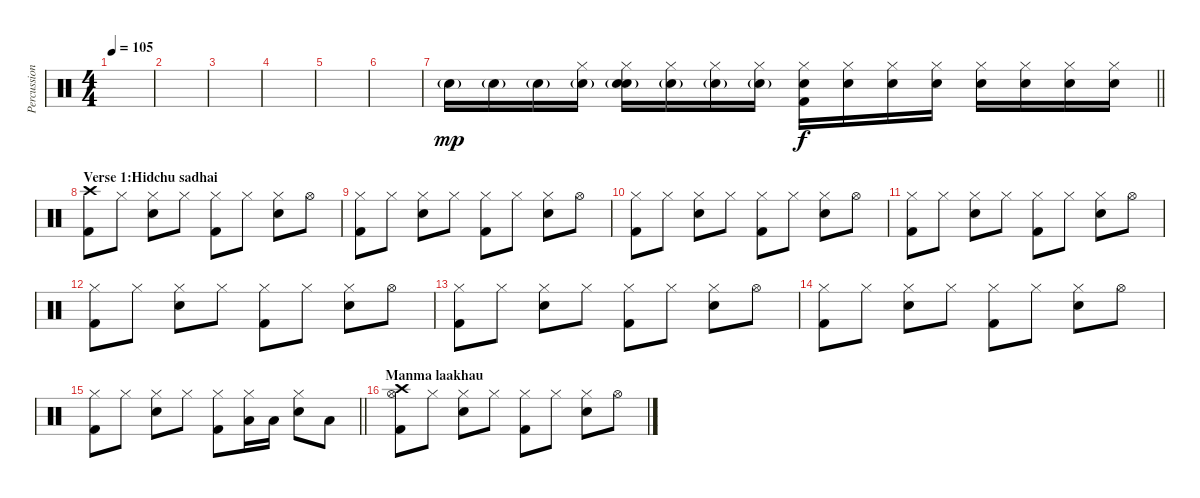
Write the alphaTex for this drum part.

\track ("Percussion" "Percussion") {instrument percussion}
\staff {score}
\articulation defaults
\ts (4 4)
\tempo 105
\clef neutral
\ks c
|
|
|
|
|
|
\barLineRight lightlight "Snare (hit) 2"{g}.16{dy mp} "Snare (hit) 2"{g}.16 "Snare (hit) 2"{g}.16
("Snare (hit) 2"{g} "Hi-Hat (closed)").16 ("Snare (hit) 2"{g} "Hi-Hat (closed)" "Snare (hit) 2").16 ("Snare (hit) 2"{g} "Hi-Hat (closed)").16 ("Snare (hit) 2"{g} "Hi-Hat (closed)").16 ("Snare (hit) 2"{g} "Hi-Hat (closed)").16 ("Snare (hit) 2" "Hi-Hat (closed)" "Kick (hit) 2").16{dy f} ("Snare (hit) 2" "Hi-Hat (closed)").16 ("Snare (hit) 2" "Hi-Hat (closed)").16 ("Snare (hit) 2" "Hi-Hat (closed)").16 ("Snare (hit) 2" "Hi-Hat (closed)").16 ("Snare (hit) 2" "Hi-Hat (closed)").16 ("Snare (hit) 2" "Hi-Hat (closed)").16 ("Snare (hit) 2" "Hi-Hat (closed)").16 |
\section ("" "Verse 1:Hidchu sadhai")
("Kick (hit) 2" "Crash high (hit)").8 "Hi-Hat (closed)".8 ("Snare (hit) 2" "Hi-Hat (closed)").8 "Hi-Hat (closed)".8 ("Kick (hit) 2" "Hi-Hat (closed)").8 "Hi-Hat (closed)".8 ("Snare (hit) 2" "Hi-Hat (closed)").8 "Hi-Hat (open)".8 |
("Kick (hit) 2" "Hi-Hat (closed)").8 "Hi-Hat (closed)".8 ("Snare (hit) 2" "Hi-Hat (closed)").8 "Hi-Hat (closed)".8 ("Kick (hit) 2" "Hi-Hat (closed)").8 "Hi-Hat (closed)".8 ("Snare (hit) 2" "Hi-Hat (closed)").8 "Hi-Hat (open)".8 |
("Kick (hit) 2" "Hi-Hat (closed)").8 "Hi-Hat (closed)".8 ("Snare (hit) 2" "Hi-Hat (closed)").8 "Hi-Hat (closed)".8 ("Kick (hit) 2" "Hi-Hat (closed)").8 "Hi-Hat (closed)".8 ("Snare (hit) 2" "Hi-Hat (closed)").8 "Hi-Hat (open)".8 |
("Kick (hit) 2" "Hi-Hat (closed)").8 "Hi-Hat (closed)".8 ("Snare (hit) 2" "Hi-Hat (closed)").8 "Hi-Hat (closed)".8 ("Kick (hit) 2" "Hi-Hat (closed)").8 "Hi-Hat (closed)".8 ("Snare (hit) 2" "Hi-Hat (closed)").8 "Hi-Hat (open)".8 |
("Kick (hit) 2" "Hi-Hat (closed)").8 "Hi-Hat (closed)".8 ("Snare (hit) 2" "Hi-Hat (closed)").8 "Hi-Hat (closed)".8 ("Kick (hit) 2" "Hi-Hat (closed)").8 "Hi-Hat (closed)".8 ("Snare (hit) 2" "Hi-Hat (closed)").8 "Hi-Hat (open)".8 |
("Kick (hit) 2" "Hi-Hat (closed)").8 "Hi-Hat (closed)".8 ("Snare (hit) 2" "Hi-Hat (closed)").8 "Hi-Hat (closed)".8 ("Kick (hit) 2" "Hi-Hat (closed)").8 "Hi-Hat (closed)".8 ("Snare (hit) 2" "Hi-Hat (closed)").8 "Hi-Hat (open)".8 |
("Kick (hit) 2" "Hi-Hat (closed)").8 "Hi-Hat (closed)".8 ("Snare (hit) 2" "Hi-Hat (closed)").8 "Hi-Hat (closed)".8 ("Kick (hit) 2" "Hi-Hat (closed)").8 "Hi-Hat (closed)".8 ("Snare (hit) 2" "Hi-Hat (closed)").8 "Hi-Hat (open)".8 |
\barLineRight lightlight
("Kick (hit) 2" "Hi-Hat (closed)").8 "Hi-Hat (closed)".8 ("Snare (hit) 2" "Hi-Hat (closed)").8 "Hi-Hat (closed)".8 ("Kick (hit) 2" "Hi-Hat (closed)").8 ("Low Tom (hit)" "Hi-Hat (closed)").16 "Low Tom (hit)".16 ("Snare (hit) 2" "Hi-Hat (closed)").8 "Low Tom (hit)".8 |
\section ("" "Manma laakhau")
("Hi-Hat (open)" "Kick (hit) 2" "Crash high (hit)").8 "Hi-Hat (closed)".8 ("Snare (hit) 2" "Hi-Hat (closed)").8 "Hi-Hat (closed)".8 ("Kick (hit) 2" "Hi-Hat (closed)").8 "Hi-Hat (closed)".8 ("Snare (hit) 2" "Hi-Hat (closed)").8 "Hi-Hat (open)".8
